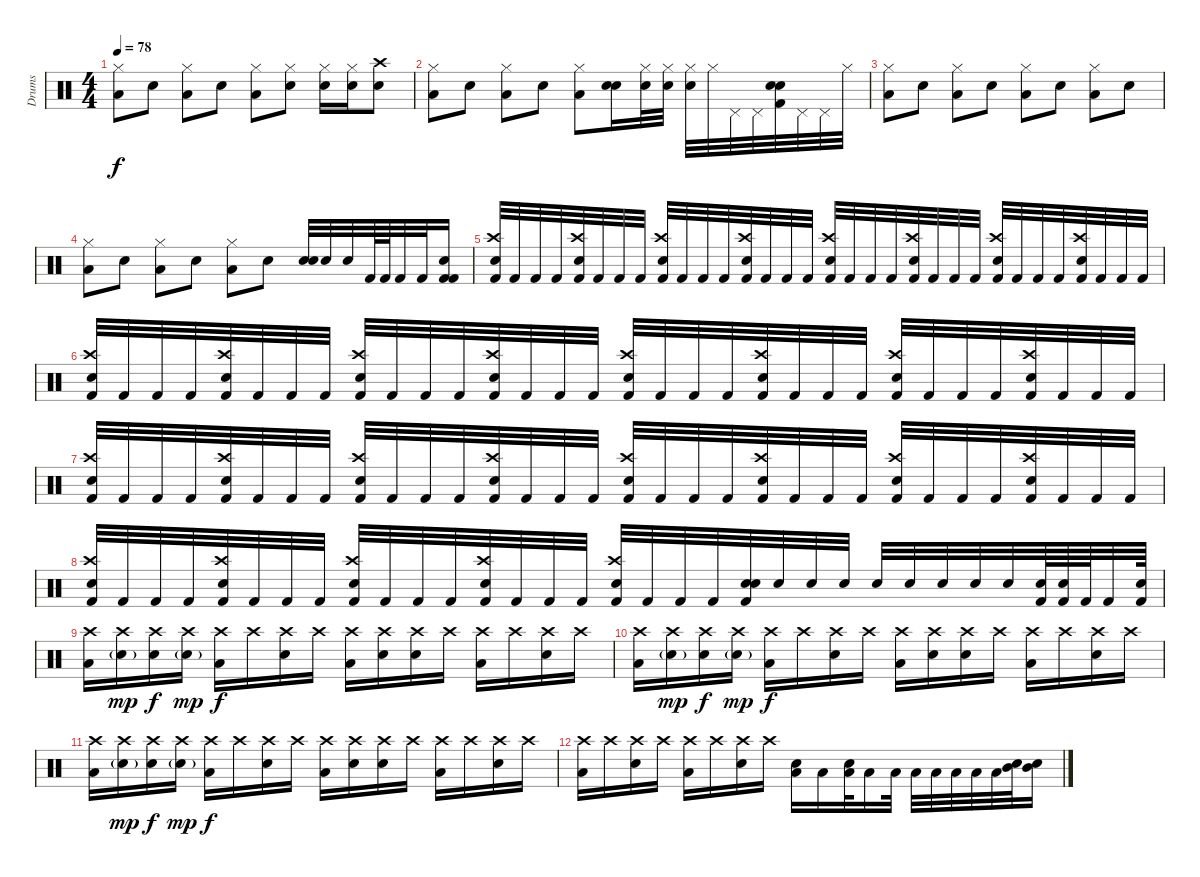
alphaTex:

\track ("Drums" "Drums") {instrument percussion}
\staff {score}
\articulation defaults
\ts (4 4)
\tempo 78
\clef neutral
\ks c
("Hi-Hat (closed)" "Low Tom (hit)").8{dy f} "Snare (hit) 2".8 ("Hi-Hat (closed)" "Low Tom (hit)").8 "Snare (hit) 2".8 ("Hi-Hat (closed)" "Low Tom (hit)").8 ("Snare (hit) 2" "Hi-Hat (closed)").8 ("Hi-Hat (closed)" "Snare (hit) 2").16 ("Hi-Hat (closed)" "Snare (hit) 2").16 ("Snare (hit) 2" "Crash high (hit)").8 |
("Hi-Hat (closed)" "Low Tom (hit)").8 "Snare (hit) 2".8 ("Hi-Hat (closed)" "Low Tom (hit)").8 "Snare (hit) 2".8 ("Hi-Hat (closed)" "Low Tom (hit)").8 ("Snare (hit) 2" "Snare (hit)").16 ("Hi-Hat (closed)" "Snare (hit)").32 ("Hi-Hat (closed)" "Snare (hit)").32 ("Hi-Hat (closed)" "Snare (hit)").32 "Hi-Hat (closed)".32 "Pedal Hi-Hat (hit)".32 "Pedal Hi-Hat (hit)".32 ("Snare (hit)" "Kick (hit) 2" "Snare (hit) 2").32 "Pedal Hi-Hat (hit)".32 "Pedal Hi-Hat (hit)".32 "Hi-Hat (closed)".32 |
("Hi-Hat (closed)" "Low Tom (hit)").8 "Snare (hit) 2".8 ("Hi-Hat (closed)" "Low Tom (hit)").8 "Snare (hit) 2".8 ("Hi-Hat (closed)" "Low Tom (hit)").8 "Snare (hit) 2".8 ("Hi-Hat (closed)" "Low Tom (hit)").8 "Snare (hit) 2".8 |
("Hi-Hat (closed)" "Low Tom (hit)").8 "Snare (hit) 2".8 ("Hi-Hat (closed)" "Low Tom (hit)").8 "Snare (hit) 2".8 ("Hi-Hat (closed)" "Low Tom (hit)").8 "Snare (hit) 2".8 ("Snare (hit) 2" "Snare (hit)").32 "Snare (hit) 2".32 "Snare (hit) 2".32 "Kick (hit) 2".64 "Kick (hit) 2".64 "Kick (hit) 2".32 "Kick (hit) 2".32 ("Electric Snare (hit)" "Kick (hit) 2" "Kick (hit) 2").16 |
("Crash high (hit)" "Snare (hit) 2" "Kick (hit) 2").32 "Kick (hit) 2".32 "Kick (hit) 2".32 "Kick (hit) 2".32 ("Crash high (hit)" "Snare (hit) 2" "Kick (hit) 2").32 "Kick (hit) 2".32 "Kick (hit) 2".32 "Kick (hit) 2".32 ("Crash high (hit)" "Snare (hit) 2" "Kick (hit) 2").32 "Kick (hit) 2".32 "Kick (hit) 2".32 "Kick (hit) 2".32 ("Crash high (hit)" "Snare (hit) 2" "Kick (hit) 2").32 "Kick (hit) 2".32 "Kick (hit) 2".32 "Kick (hit) 2".32 ("Crash high (hit)" "Snare (hit) 2" "Kick (hit) 2").32 "Kick (hit) 2".32 "Kick (hit) 2".32 "Kick (hit) 2".32 ("Crash high (hit)" "Snare (hit) 2" "Kick (hit) 2").32 "Kick (hit) 2".32 "Kick (hit) 2".32 "Kick (hit) 2".32 ("Crash high (hit)" "Snare (hit) 2" "Kick (hit) 2").32 "Kick (hit) 2".32 "Kick (hit) 2".32 "Kick (hit) 2".32 ("Crash high (hit)" "Snare (hit) 2" "Kick (hit) 2").32 "Kick (hit) 2".32 "Kick (hit) 2".32 "Kick (hit) 2".32 |
("Crash high (hit)" "Snare (hit) 2" "Kick (hit) 2").32 "Kick (hit) 2".32 "Kick (hit) 2".32 "Kick (hit) 2".32 ("Crash high (hit)" "Snare (hit) 2" "Kick (hit) 2").32 "Kick (hit) 2".32 "Kick (hit) 2".32 "Kick (hit) 2".32 ("Crash high (hit)" "Snare (hit) 2" "Kick (hit) 2").32 "Kick (hit) 2".32 "Kick (hit) 2".32 "Kick (hit) 2".32 ("Crash high (hit)" "Snare (hit) 2" "Kick (hit) 2").32 "Kick (hit) 2".32 "Kick (hit) 2".32 "Kick (hit) 2".32 ("Crash high (hit)" "Snare (hit) 2" "Kick (hit) 2").32 "Kick (hit) 2".32 "Kick (hit) 2".32 "Kick (hit) 2".32 ("Crash high (hit)" "Snare (hit) 2" "Kick (hit) 2").32 "Kick (hit) 2".32 "Kick (hit) 2".32 "Kick (hit) 2".32 ("Crash high (hit)" "Snare (hit) 2" "Kick (hit) 2").32 "Kick (hit) 2".32 "Kick (hit) 2".32 "Kick (hit) 2".32 ("Crash high (hit)" "Snare (hit) 2" "Kick (hit) 2").32 "Kick (hit) 2".32 "Kick (hit) 2".32 "Kick (hit) 2".32 |
("Crash high (hit)" "Snare (hit) 2" "Kick (hit) 2").32 "Kick (hit) 2".32 "Kick (hit) 2".32 "Kick (hit) 2".32 ("Crash high (hit)" "Snare (hit) 2" "Kick (hit) 2").32 "Kick (hit) 2".32 "Kick (hit) 2".32 "Kick (hit) 2".32 ("Crash high (hit)" "Snare (hit) 2" "Kick (hit) 2").32 "Kick (hit) 2".32 "Kick (hit) 2".32 "Kick (hit) 2".32 ("Crash high (hit)" "Snare (hit) 2" "Kick (hit) 2").32 "Kick (hit) 2".32 "Kick (hit) 2".32 "Kick (hit) 2".32 ("Crash high (hit)" "Snare (hit) 2" "Kick (hit) 2").32 "Kick (hit) 2".32 "Kick (hit) 2".32 "Kick (hit) 2".32 ("Crash high (hit)" "Snare (hit) 2" "Kick (hit) 2").32 "Kick (hit) 2".32 "Kick (hit) 2".32 "Kick (hit) 2".32 ("Crash high (hit)" "Snare (hit) 2" "Kick (hit) 2").32 "Kick (hit) 2".32 "Kick (hit) 2".32 "Kick (hit) 2".32 ("Crash high (hit)" "Snare (hit) 2" "Kick (hit) 2").32 "Kick (hit) 2".32 "Kick (hit) 2".32 "Kick (hit) 2".32 |
("Crash high (hit)" "Snare (hit) 2" "Kick (hit) 2").32 "Kick (hit) 2".32 "Kick (hit) 2".32 "Kick (hit) 2".32 ("Crash high (hit)" "Snare (hit) 2" "Kick (hit) 2").32 "Kick (hit) 2".32 "Kick (hit) 2".32 "Kick (hit) 2".32 ("Crash high (hit)" "Snare (hit) 2" "Kick (hit) 2").32 "Kick (hit) 2".32 "Kick (hit) 2".32 "Kick (hit) 2".32 ("Crash high (hit)" "Snare (hit) 2" "Kick (hit) 2").32 "Kick (hit) 2".32 "Kick (hit) 2".32 "Kick (hit) 2".32 ("Crash high (hit)" "Snare (hit) 2" "Kick (hit) 2").32 "Kick (hit) 2".32 "Kick (hit) 2".32 "Kick (hit) 2".32 ("Electric Snare (hit)" "Snare (hit) 2" "Kick (hit) 2").32 "Electric Snare (hit)".32 "Electric Snare (hit)".32 "Electric Snare (hit)".32 "Electric Snare (hit)".32 "Electric Snare (hit)".32 "Electric Snare (hit)".32 "Electric Snare (hit)".32 "Electric Snare (hit)".32 ("Electric Snare (hit)" "Kick (hit) 2").64 ("Electric Snare (hit)" "Kick (hit) 2").64 "Kick (hit) 2".64 "Kick (hit) 2".32 ("Electric Snare (hit)" "Kick (hit) 2").64 |
("Crash high (hit)" "Low Tom (hit)").16 ("Crash high (hit)" "Snare (hit)"{g}).16{dy mp} ("Crash high (hit)" "Electric Snare (hit)").16{dy f} ("Crash high (hit)" "Snare (hit)"{g}).16{dy mp} ("Crash high (hit)" "Low Tom (hit)").16{dy f} "Crash high (hit)".16 ("Crash high (hit)" "Electric Snare (hit)").16 "Crash high (hit)".16 ("Crash high (hit)" "Low Tom (hit)").16 ("Crash high (hit)" "Snare (hit)").16 ("Crash high (hit)" "Electric Snare (hit)").16 "Crash high (hit)".16 ("Crash high (hit)" "Low Tom (hit)").16 "Crash high (hit)".16 ("Crash high (hit)" "Electric Snare (hit)").16 "Crash high (hit)".16 |
("Crash high (hit)" "Low Tom (hit)").16 ("Crash high (hit)" "Snare (hit)"{g}).16{dy mp} ("Crash high (hit)" "Electric Snare (hit)").16{dy f} ("Crash high (hit)" "Snare (hit)"{g}).16{dy mp} ("Crash high (hit)" "Low Tom (hit)").16{dy f} "Crash high (hit)".16 ("Crash high (hit)" "Electric Snare (hit)").16 "Crash high (hit)".16 ("Crash high (hit)" "Low Tom (hit)").16 ("Crash high (hit)" "Snare (hit)").16 ("Crash high (hit)" "Electric Snare (hit)").16 "Crash high (hit)".16 ("Crash high (hit)" "Low Tom (hit)").16 "Crash high (hit)".16 ("Crash high (hit)" "Electric Snare (hit)").16 "Crash high (hit)".16 |
("Crash high (hit)" "Low Tom (hit)").16 ("Crash high (hit)" "Snare (hit)"{g}).16{dy mp} ("Crash high (hit)" "Electric Snare (hit)").16{dy f} ("Crash high (hit)" "Snare (hit)"{g}).16{dy mp} ("Crash high (hit)" "Low Tom (hit)").16{dy f} "Crash high (hit)".16 ("Crash high (hit)" "Electric Snare (hit)").16 "Crash high (hit)".16 ("Crash high (hit)" "Low Tom (hit)").16 ("Crash high (hit)" "Snare (hit)").16 ("Crash high (hit)" "Electric Snare (hit)").16 "Crash high (hit)".16 ("Crash high (hit)" "Low Tom (hit)").16 "Crash high (hit)".16 ("Crash high (hit)" "Electric Snare (hit)").16 "Crash high (hit)".16 |
("Crash high (hit)" "Low Tom (hit)").16 "Crash high (hit)".16 ("Crash high (hit)" "Electric Snare (hit)").16 "Crash high (hit)".16 ("Crash high (hit)" "Low Tom (hit)").16 "Crash high (hit)".16 ("Crash high (hit)" "Electric Snare (hit)").16 "Crash high (hit)".16 ("Low Tom (hit)" "Snare (hit)").16 "Low Tom (hit)".16 ("Low Floor Tom (hit)" "Snare (hit)").32 "Low Floor Tom (hit)".16 "Low Tom (hit)".32 "Low Tom (hit)".32 "Low Tom (hit)".32 "Low Tom (hit)".32 "Low Tom (hit)".32 "Low Tom (hit)".32 ("Mid Tom (hit)" "Snare (hit)").32 ("Mid Tom (hit)" "Electric Snare (hit)").16
